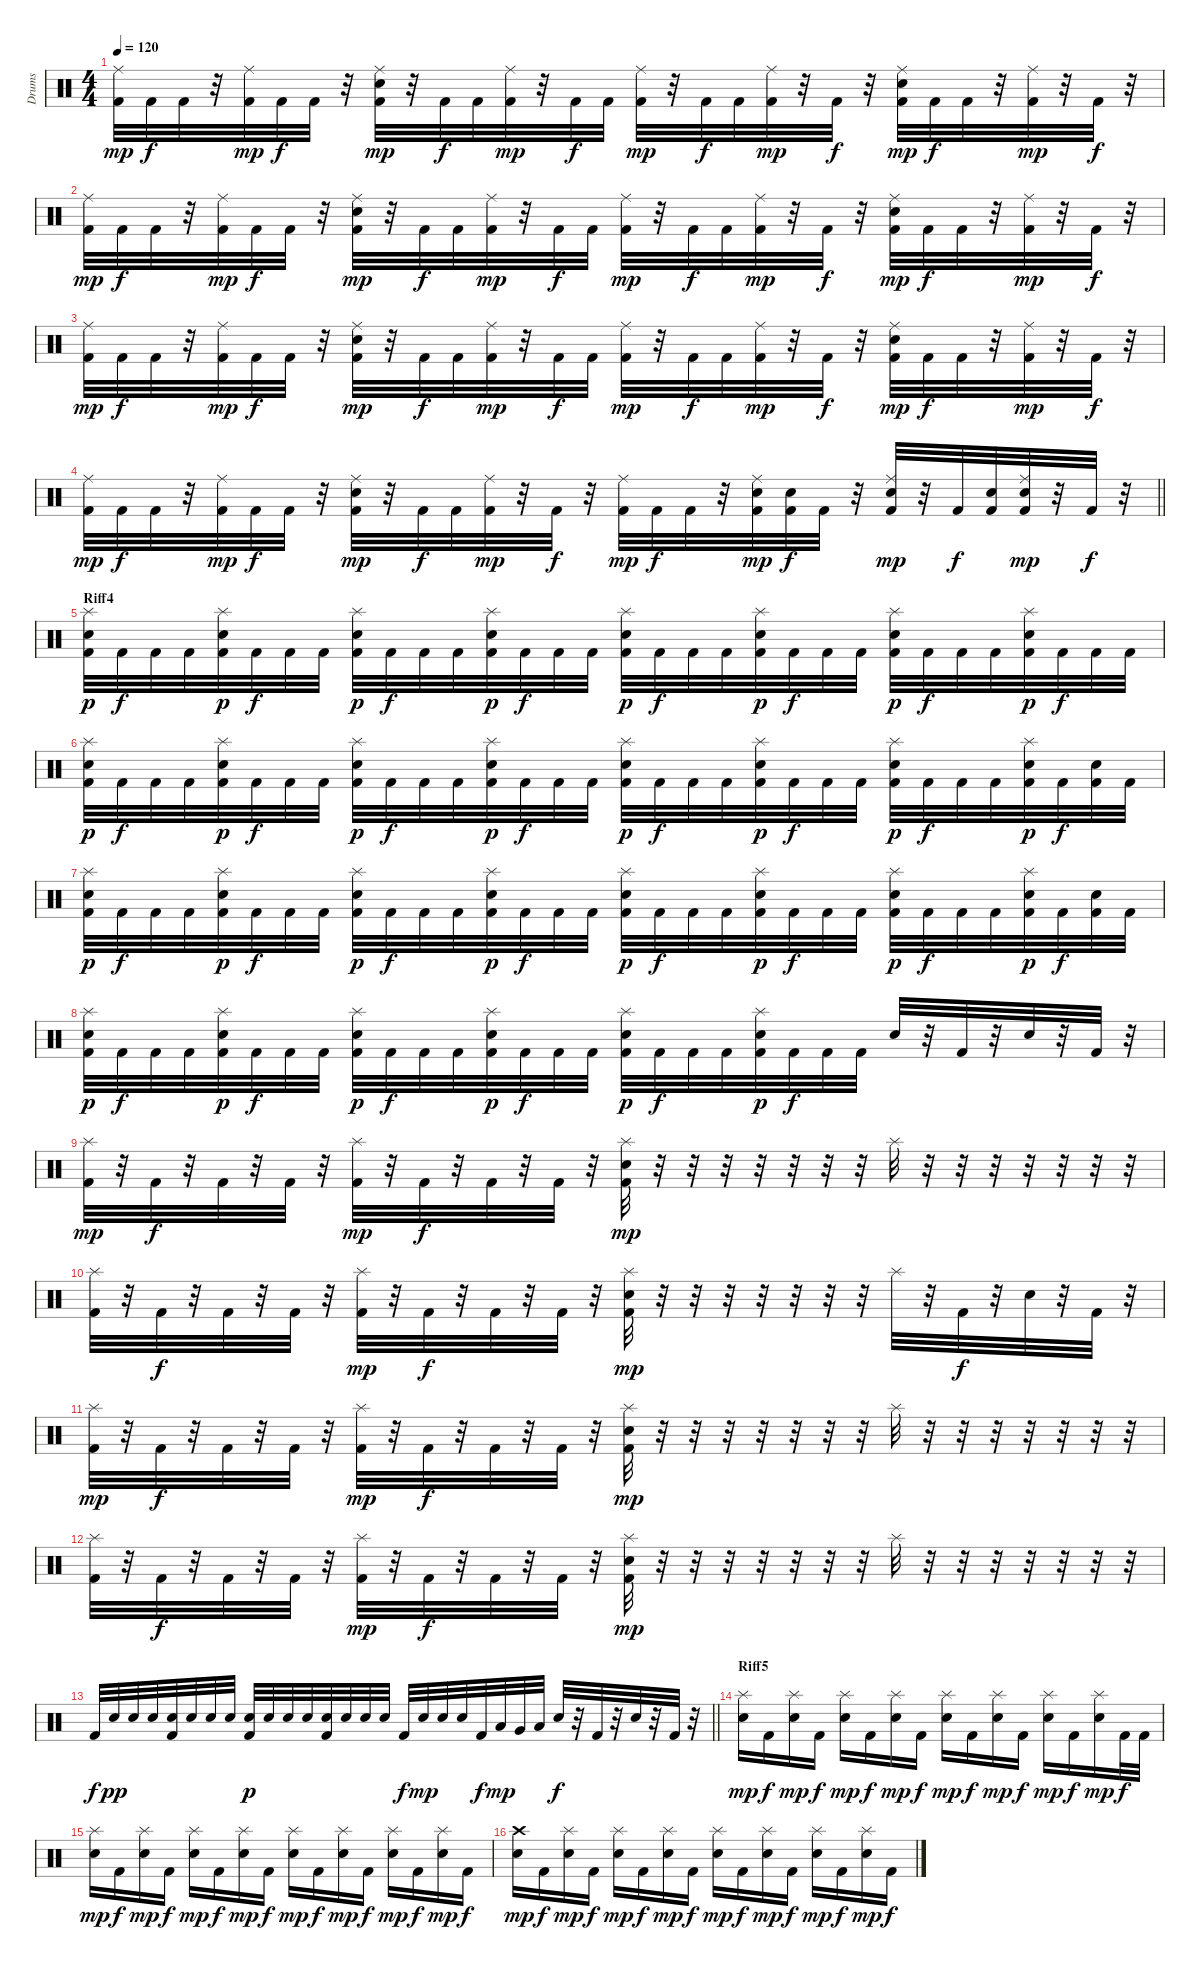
\track ("Drums" "Drums") {instrument percussion}
\staff {score}
\articulation defaults
\ts (4 4)
\tempo 120
\clef neutral
\ks c
("Kick (hit) 2" "Ride (middle)").32{dy mp} "Kick (hit) 2".32{dy f} "Kick (hit) 2".32 r.32 ("Kick (hit) 2" "Ride (middle)").32{dy mp} "Kick (hit) 2".32{dy f} "Kick (hit) 2".32 r.32 ("Kick (hit) 2" "Ride (middle)" "Snare (hit) 2").32{dy mp} r.32 "Kick (hit) 2".32{dy f} "Kick (hit) 2".32 ("Kick (hit) 2" "Ride (middle)").32{dy mp} r.32 "Kick (hit) 2".32{dy f} "Kick (hit) 2".32 ("Kick (hit) 2" "Ride (middle)").32{dy mp} r.32 "Kick (hit) 2".32{dy f} "Kick (hit) 2".32 ("Kick (hit) 2" "Ride (middle)").32{dy mp} r.32 "Kick (hit) 2".32{dy f} r.32 ("Kick (hit) 2" "Ride (middle)" "Snare (hit) 2").32{dy mp} "Kick (hit) 2".32{dy f} "Kick (hit) 2".32 r.32 ("Kick (hit) 2" "Ride (middle)").32{dy mp} r.32 "Kick (hit) 2".32{dy f} r.32 |
("Kick (hit) 2" "Ride (middle)").32{dy mp} "Kick (hit) 2".32{dy f} "Kick (hit) 2".32 r.32 ("Kick (hit) 2" "Ride (middle)").32{dy mp} "Kick (hit) 2".32{dy f} "Kick (hit) 2".32 r.32 ("Kick (hit) 2" "Ride (middle)" "Snare (hit) 2").32{dy mp} r.32 "Kick (hit) 2".32{dy f} "Kick (hit) 2".32 ("Kick (hit) 2" "Ride (middle)").32{dy mp} r.32 "Kick (hit) 2".32{dy f} "Kick (hit) 2".32 ("Kick (hit) 2" "Ride (middle)").32{dy mp} r.32 "Kick (hit) 2".32{dy f} "Kick (hit) 2".32 ("Kick (hit) 2" "Ride (middle)").32{dy mp} r.32 "Kick (hit) 2".32{dy f} r.32 ("Kick (hit) 2" "Ride (middle)" "Snare (hit) 2").32{dy mp} "Kick (hit) 2".32{dy f} "Kick (hit) 2".32 r.32 ("Kick (hit) 2" "Ride (middle)").32{dy mp} r.32 "Kick (hit) 2".32{dy f} r.32 |
("Kick (hit) 2" "Ride (middle)").32{dy mp} "Kick (hit) 2".32{dy f} "Kick (hit) 2".32 r.32 ("Kick (hit) 2" "Ride (middle)").32{dy mp} "Kick (hit) 2".32{dy f} "Kick (hit) 2".32 r.32 ("Kick (hit) 2" "Ride (middle)" "Snare (hit) 2").32{dy mp} r.32 "Kick (hit) 2".32{dy f} "Kick (hit) 2".32 ("Kick (hit) 2" "Ride (middle)").32{dy mp} r.32 "Kick (hit) 2".32{dy f} "Kick (hit) 2".32 ("Kick (hit) 2" "Ride (middle)").32{dy mp} r.32 "Kick (hit) 2".32{dy f} "Kick (hit) 2".32 ("Kick (hit) 2" "Ride (middle)").32{dy mp} r.32 "Kick (hit) 2".32{dy f} r.32 ("Kick (hit) 2" "Ride (middle)" "Snare (hit) 2").32{dy mp} "Kick (hit) 2".32{dy f} "Kick (hit) 2".32 r.32 ("Kick (hit) 2" "Ride (middle)").32{dy mp} r.32 "Kick (hit) 2".32{dy f} r.32 |
\barLineRight lightlight
("Kick (hit) 2" "Ride (middle)").32{dy mp} "Kick (hit) 2".32{dy f} "Kick (hit) 2".32 r.32 ("Kick (hit) 2" "Ride (middle)").32{dy mp} "Kick (hit) 2".32{dy f} "Kick (hit) 2".32 r.32 ("Kick (hit) 2" "Ride (middle)" "Snare (hit) 2").32{dy mp} r.32 "Kick (hit) 2".32{dy f} "Kick (hit) 2".32 ("Kick (hit) 2" "Ride (middle)").32{dy mp} r.32 "Kick (hit) 2".32{dy f} r.32 ("Kick (hit) 2" "Ride (middle)").32{dy mp} "Kick (hit) 2".32{dy f} "Kick (hit) 2".32 r.32 ("Kick (hit) 2" "Ride (middle)" "Snare (hit) 2").32{dy mp} ("Kick (hit) 2" "Snare (hit) 2").32{dy f} "Kick (hit) 2".32 r.32 ("Kick (hit) 2" "Ride (middle)" "Snare (hit) 2").32{dy mp} r.32 "Kick (hit) 2".32{dy f} ("Kick (hit) 2" "Snare (hit) 2").32 ("Kick (hit) 2" "Ride (middle)" "Snare (hit) 2").32{dy mp} r.32 "Kick (hit) 2".32{dy f} r.32 |
\section ("" "Riff4")
("Kick (hit) 2" "Splash (hit)" "Snare (hit) 2").32{dy p} "Kick (hit) 2".32{dy f} "Kick (hit) 2".32 "Kick (hit) 2".32 ("Kick (hit) 2" "Splash (hit)" "Snare (hit) 2").32{dy p} "Kick (hit) 2".32{dy f} "Kick (hit) 2".32 "Kick (hit) 2".32 ("Kick (hit) 2" "Splash (hit)" "Snare (hit) 2").32{dy p} "Kick (hit) 2".32{dy f} "Kick (hit) 2".32 "Kick (hit) 2".32 ("Kick (hit) 2" "Splash (hit)" "Snare (hit) 2").32{dy p} "Kick (hit) 2".32{dy f} "Kick (hit) 2".32 "Kick (hit) 2".32 ("Kick (hit) 2" "Splash (hit)" "Snare (hit) 2").32{dy p} "Kick (hit) 2".32{dy f} "Kick (hit) 2".32 "Kick (hit) 2".32 ("Kick (hit) 2" "Splash (hit)" "Snare (hit) 2").32{dy p} "Kick (hit) 2".32{dy f} "Kick (hit) 2".32 "Kick (hit) 2".32 ("Kick (hit) 2" "Splash (hit)" "Snare (hit) 2").32{dy p} "Kick (hit) 2".32{dy f} "Kick (hit) 2".32 "Kick (hit) 2".32 ("Kick (hit) 2" "Splash (hit)" "Snare (hit) 2").32{dy p} "Kick (hit) 2".32{dy f} "Kick (hit) 2".32 "Kick (hit) 2".32 |
("Kick (hit) 2" "Splash (hit)" "Snare (hit) 2").32{dy p} "Kick (hit) 2".32{dy f} "Kick (hit) 2".32 "Kick (hit) 2".32 ("Kick (hit) 2" "Splash (hit)" "Snare (hit) 2").32{dy p} "Kick (hit) 2".32{dy f} "Kick (hit) 2".32 "Kick (hit) 2".32 ("Kick (hit) 2" "Splash (hit)" "Snare (hit) 2").32{dy p} "Kick (hit) 2".32{dy f} "Kick (hit) 2".32 "Kick (hit) 2".32 ("Kick (hit) 2" "Splash (hit)" "Snare (hit) 2").32{dy p} "Kick (hit) 2".32{dy f} "Kick (hit) 2".32 "Kick (hit) 2".32 ("Kick (hit) 2" "Splash (hit)" "Snare (hit) 2").32{dy p} "Kick (hit) 2".32{dy f} "Kick (hit) 2".32 "Kick (hit) 2".32 ("Kick (hit) 2" "Splash (hit)" "Snare (hit) 2").32{dy p} "Kick (hit) 2".32{dy f} "Kick (hit) 2".32 "Kick (hit) 2".32 ("Kick (hit) 2" "Splash (hit)" "Snare (hit) 2").32{dy p} "Kick (hit) 2".32{dy f} "Kick (hit) 2".32 "Kick (hit) 2".32 ("Kick (hit) 2" "Splash (hit)" "Snare (hit) 2").32{dy p} "Kick (hit) 2".32{dy f} ("Kick (hit) 2" "Snare (hit) 2").32 "Kick (hit) 2".32 |
("Kick (hit) 2" "Splash (hit)" "Snare (hit) 2").32{dy p} "Kick (hit) 2".32{dy f} "Kick (hit) 2".32 "Kick (hit) 2".32 ("Kick (hit) 2" "Splash (hit)" "Snare (hit) 2").32{dy p} "Kick (hit) 2".32{dy f} "Kick (hit) 2".32 "Kick (hit) 2".32 ("Kick (hit) 2" "Splash (hit)" "Snare (hit) 2").32{dy p} "Kick (hit) 2".32{dy f} "Kick (hit) 2".32 "Kick (hit) 2".32 ("Kick (hit) 2" "Splash (hit)" "Snare (hit) 2").32{dy p} "Kick (hit) 2".32{dy f} "Kick (hit) 2".32 "Kick (hit) 2".32 ("Kick (hit) 2" "Splash (hit)" "Snare (hit) 2").32{dy p} "Kick (hit) 2".32{dy f} "Kick (hit) 2".32 "Kick (hit) 2".32 ("Kick (hit) 2" "Splash (hit)" "Snare (hit) 2").32{dy p} "Kick (hit) 2".32{dy f} "Kick (hit) 2".32 "Kick (hit) 2".32 ("Kick (hit) 2" "Splash (hit)" "Snare (hit) 2").32{dy p} "Kick (hit) 2".32{dy f} "Kick (hit) 2".32 "Kick (hit) 2".32 ("Kick (hit) 2" "Splash (hit)" "Snare (hit) 2").32{dy p} "Kick (hit) 2".32{dy f} ("Kick (hit) 2" "Snare (hit) 2").32 "Kick (hit) 2".32 |
("Kick (hit) 2" "Splash (hit)" "Snare (hit) 2").32{dy p} "Kick (hit) 2".32{dy f} "Kick (hit) 2".32 "Kick (hit) 2".32 ("Kick (hit) 2" "Splash (hit)" "Snare (hit) 2").32{dy p} "Kick (hit) 2".32{dy f} "Kick (hit) 2".32 "Kick (hit) 2".32 ("Kick (hit) 2" "Splash (hit)" "Snare (hit) 2").32{dy p} "Kick (hit) 2".32{dy f} "Kick (hit) 2".32 "Kick (hit) 2".32 ("Kick (hit) 2" "Splash (hit)" "Snare (hit) 2").32{dy p} "Kick (hit) 2".32{dy f} "Kick (hit) 2".32 "Kick (hit) 2".32 ("Kick (hit) 2" "Splash (hit)" "Snare (hit) 2").32{dy p} "Kick (hit) 2".32{dy f} "Kick (hit) 2".32 "Kick (hit) 2".32 ("Kick (hit) 2" "Splash (hit)" "Snare (hit) 2").32{dy p} "Kick (hit) 2".32{dy f} "Kick (hit) 2".32 "Kick (hit) 2".32 "Snare (hit) 2".32 r.32 "Kick (hit) 2".32 r.32 "Snare (hit) 2".32 r.32 "Kick (hit) 2".32 r.32 |
("Kick (hit) 2" "Splash (hit)").32{dy mp} r.32 "Kick (hit) 2".32{dy f} r.32 "Kick (hit) 2".32 r.32 "Kick (hit) 2".32 r.32 ("Kick (hit) 2" "Splash (hit)").32{dy mp} r.32 "Kick (hit) 2".32{dy f} r.32 "Kick (hit) 2".32 r.32 "Kick (hit) 2".32 r.32 ("Kick (hit) 2" "Splash (hit)" "Snare (hit) 2").32{dy mp} r.32 r.32 r.32 r.32 r.32 r.32 r.32 "Splash (hit)".32 r.32 r.32 r.32 r.32 r.32 r.32 r.32 |
("Kick (hit) 2" "Splash (hit)").32 r.32 "Kick (hit) 2".32{dy f} r.32 "Kick (hit) 2".32 r.32 "Kick (hit) 2".32 r.32 ("Kick (hit) 2" "Splash (hit)").32{dy mp} r.32 "Kick (hit) 2".32{dy f} r.32 "Kick (hit) 2".32 r.32 "Kick (hit) 2".32 r.32 ("Kick (hit) 2" "Splash (hit)" "Snare (hit) 2").32{dy mp} r.32 r.32 r.32 r.32 r.32 r.32 r.32 "Splash (hit)".32 r.32 "Kick (hit) 2".32{dy f} r.32 "Snare (hit) 2".32 r.32 "Kick (hit) 2".32 r.32 |
("Kick (hit) 2" "Splash (hit)").32{dy mp} r.32 "Kick (hit) 2".32{dy f} r.32 "Kick (hit) 2".32 r.32 "Kick (hit) 2".32 r.32 ("Kick (hit) 2" "Splash (hit)").32{dy mp} r.32 "Kick (hit) 2".32{dy f} r.32 "Kick (hit) 2".32 r.32 "Kick (hit) 2".32 r.32 ("Kick (hit) 2" "Splash (hit)" "Snare (hit) 2").32{dy mp} r.32 r.32 r.32 r.32 r.32 r.32 r.32 "Splash (hit)".32 r.32 r.32 r.32 r.32 r.32 r.32 r.32 |
("Kick (hit) 2" "Splash (hit)").32 r.32 "Kick (hit) 2".32{dy f} r.32 "Kick (hit) 2".32 r.32 "Kick (hit) 2".32 r.32 ("Kick (hit) 2" "Splash (hit)").32{dy mp} r.32 "Kick (hit) 2".32{dy f} r.32 "Kick (hit) 2".32 r.32 "Kick (hit) 2".32 r.32 ("Kick (hit) 2" "Splash (hit)" "Snare (hit) 2").32{dy mp} r.32 r.32 r.32 r.32 r.32 r.32 r.32 "Splash (hit)".32 r.32 r.32 r.32 r.32 r.32 r.32 r.32 |
\barLineRight lightlight "Kick (hit) 2".32{dy f} "Snare (hit) 2".32{dy pp} "Snare (hit) 2".32 "Snare (hit) 2".32
("Kick (hit) 2" "Snare (hit) 2").32 "Snare (hit) 2".32 "Snare (hit) 2".32 "Snare (hit) 2".32 ("Kick (hit) 2" "Snare (hit) 2").32{dy p} "Snare (hit) 2".32 "Snare (hit) 2".32 "Snare (hit) 2".32 ("Kick (hit) 2" "Snare (hit) 2").32 "Snare (hit) 2".32 "Snare (hit) 2".32 "Snare (hit) 2".32 "Kick (hit) 2".32{dy f} "Snare (hit) 2".32{dy mp} "Snare (hit) 2".32 "Snare (hit) 2".32 "Kick (hit) 2".32{dy f} "Low Tom (hit)".32{dy mp} "Very Low Tom (hit)".32 "Low Floor Tom (hit)".32 "Snare (hit) 2".32{dy f} r.32 "Kick (hit) 2".32 r.32 "Snare (hit) 2".32 r.32 "Kick (hit) 2".32 r.32 |
\section ("" "Riff5")
("Splash (hit)" "Snare (hit) 2").16{dy mp} "Kick (hit) 2".16{dy f} ("Splash (hit)" "Snare (hit) 2").16{dy mp} "Kick (hit) 2".16{dy f} ("Splash (hit)" "Snare (hit) 2").16{dy mp} "Kick (hit) 2".16{dy f} ("Splash (hit)" "Snare (hit) 2").16{dy mp} "Kick (hit) 2".16{dy f} ("Splash (hit)" "Snare (hit) 2").16{dy mp} "Kick (hit) 2".16{dy f} ("Splash (hit)" "Snare (hit) 2").16{dy mp} "Kick (hit) 2".16{dy f} ("Splash (hit)" "Snare (hit) 2").16{dy mp} "Kick (hit) 2".16{dy f} ("Splash (hit)" "Snare (hit) 2").16{dy mp} "Kick (hit) 2".32{dy f} "Kick (hit) 2".32 |
("Splash (hit)" "Snare (hit) 2").16{dy mp} "Kick (hit) 2".16{dy f} ("Splash (hit)" "Snare (hit) 2").16{dy mp} "Kick (hit) 2".16{dy f} ("Splash (hit)" "Snare (hit) 2").16{dy mp} "Kick (hit) 2".16{dy f} ("Splash (hit)" "Snare (hit) 2").16{dy mp} "Kick (hit) 2".16{dy f} ("Splash (hit)" "Snare (hit) 2").16{dy mp} "Kick (hit) 2".16{dy f} ("Splash (hit)" "Snare (hit) 2").16{dy mp} "Kick (hit) 2".16{dy f} ("Splash (hit)" "Snare (hit) 2").16{dy mp} "Kick (hit) 2".16{dy f} ("Splash (hit)" "Snare (hit) 2").16{dy mp} "Kick (hit) 2".16{dy f} |
("Crash high (hit)" "Snare (hit) 2").16{dy mp} "Kick (hit) 2".16{dy f} ("Splash (hit)" "Snare (hit) 2").16{dy mp} "Kick (hit) 2".16{dy f} ("Splash (hit)" "Snare (hit) 2").16{dy mp} "Kick (hit) 2".16{dy f} ("Splash (hit)" "Snare (hit) 2").16{dy mp} "Kick (hit) 2".16{dy f} ("Splash (hit)" "Snare (hit) 2").16{dy mp} "Kick (hit) 2".16{dy f} ("Splash (hit)" "Snare (hit) 2").16{dy mp} "Kick (hit) 2".16{dy f} ("Splash (hit)" "Snare (hit) 2").16{dy mp} "Kick (hit) 2".16{dy f} ("Splash (hit)" "Snare (hit) 2").16{dy mp} "Kick (hit) 2".16{dy f}
